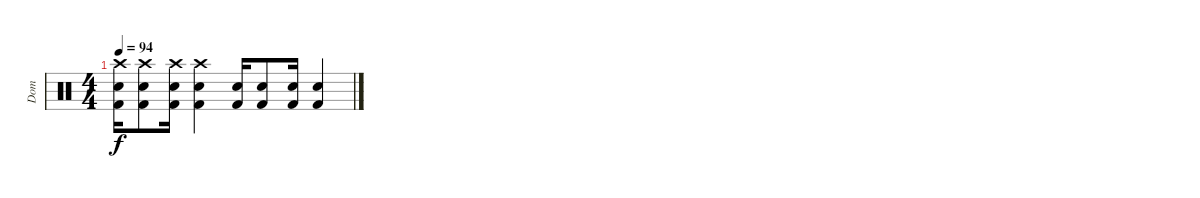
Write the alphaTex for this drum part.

\track ("Dom" "Dom") {instrument percussion}
\staff {score}
\articulation defaults
\ts (4 4)
\tempo 94
\clef neutral
\ks c
("Crash high (hit)" "Snare (hit) 2" "Kick (hit) 2").16{dy f} ("Crash high (hit)" "Snare (hit) 2" "Kick (hit) 2").8 ("Crash high (hit)" "Snare (hit) 2" "Kick (hit) 2").16 ("Crash high (hit)" "Snare (hit) 2" "Kick (hit) 2").4 ("Snare (hit) 2" "Kick (hit) 2").16 ("Snare (hit) 2" "Kick (hit) 2").8 ("Snare (hit) 2" "Kick (hit) 2").16 ("Snare (hit) 2" "Kick (hit) 2").4
